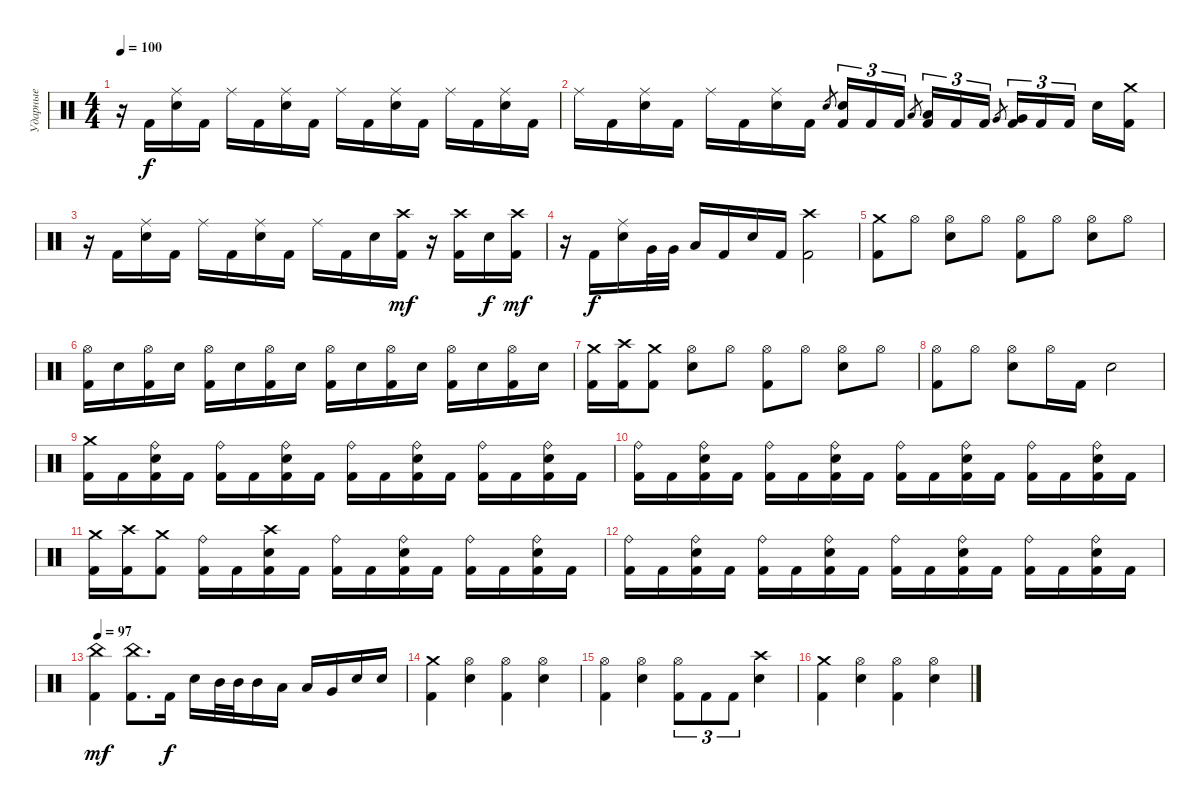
\track ("Ударные" "Ударные") {instrument percussion}
\staff {score}
\articulation defaults
\ts (4 4)
\tempo 100
\clef neutral
\ks c
r.16{dy f} "Kick (hit) 2".16 ("Ride (middle)" "Snare (hit) 2").16 "Kick (hit) 2".16 "Ride (middle)".16 "Kick (hit) 2".16 ("Ride (middle)" "Snare (hit) 2").16 "Kick (hit) 2".16 "Ride (middle)".16 "Kick (hit) 2".16 ("Ride (middle)" "Snare (hit) 2").16 "Kick (hit) 2".16 "Ride (middle)".16 "Kick (hit) 2".16 ("Ride (middle)" "Snare (hit) 2").16 "Kick (hit) 2".16 |
"Ride (middle)".16 "Kick (hit) 2".16 ("Ride (middle)" "Snare (hit) 2").16 "Kick (hit) 2".16 "Ride (middle)".16 "Kick (hit) 2".16 ("Ride (middle)" "Snare (hit) 2").16 "Kick (hit) 2".16 "Snare (hit) 2".8{gr} ("Kick (hit) 2" "Snare (hit) 2").16{tu (3 2)} "Kick (hit) 2".16{tu (3 2)} "Kick (hit) 2".16{tu (3 2)} "Low Tom (hit)".8{gr beam splitsecondary} ("Low Tom (hit)" "Kick (hit) 2").16{tu (3 2)} "Kick (hit) 2".16{tu (3 2)} "Kick (hit) 2".16{tu (3 2)} "Very Low Tom (hit)".8{gr} ("Very Low Tom (hit)" "Kick (hit) 2").16{tu (3 2)} "Kick (hit) 2".16{tu (3 2)} "Kick (hit) 2".16{tu (3 2) beam splitsecondary} "Snare (hit) 2".16 ("Crash medium (hit)" "Kick (hit) 2").16 |
r.16 "Kick (hit) 2".16 ("Ride (middle)" "Snare (hit) 2").16 "Kick (hit) 2".16 "Ride (middle)".16 "Kick (hit) 2".16 ("Ride (middle)" "Snare (hit) 2").16 "Kick (hit) 2".16 "Ride (middle)".16 "Kick (hit) 2".16 "Snare (hit) 2".16 ("Crash high (hit)" "Kick (hit) 2").16{dy mf} r.16 ("Crash high (hit)" "Kick (hit) 2").16 "Snare (hit) 2".16{dy f} ("Crash high (hit)" "Kick (hit) 2").16{dy mf} |
r.16 "Kick (hit) 2".16{dy f} ("Ride (middle)" "Snare (hit) 2").16 "Very Low Tom (hit)".32 "Very Low Tom (hit)".32 "Low Floor Tom (hit)".16 "Kick (hit) 2".16 "Snare (hit) 2".16 "Kick (hit) 2".16 ("Crash high (hit)" "Kick (hit) 2").2 |
("Crash medium (hit)" "Kick (hit) 2").8 "Hi-Hat (open)".8 ("Hi-Hat (open)" "Snare (hit) 2").8 "Hi-Hat (open)".8 ("Hi-Hat (open)" "Kick (hit) 2").8 "Hi-Hat (open)".8 ("Hi-Hat (open)" "Snare (hit) 2").8 "Hi-Hat (open)".8 |
("Hi-Hat (open)" "Kick (hit) 2").16 "Snare (hit) 2".16 ("Hi-Hat (open)" "Kick (hit) 2").16 "Snare (hit) 2".16 ("Hi-Hat (open)" "Kick (hit) 2").16 "Snare (hit) 2".16 ("Hi-Hat (open)" "Kick (hit) 2").16 "Snare (hit) 2".16 ("Hi-Hat (open)" "Kick (hit) 2").16 "Snare (hit) 2".16 ("Hi-Hat (open)" "Kick (hit) 2").16 "Snare (hit) 2".16 ("Hi-Hat (open)" "Kick (hit) 2").16 "Snare (hit) 2".16 ("Hi-Hat (open)" "Kick (hit) 2").16 "Snare (hit) 2".16 |
("Crash medium (hit)" "Kick (hit) 2").16 ("Crash high (hit)" "Kick (hit) 2").16 ("Crash medium (hit)" "Kick (hit) 2").8 ("Hi-Hat (open)" "Snare (hit) 2").8 "Hi-Hat (open)".8 ("Hi-Hat (open)" "Kick (hit) 2").8 "Hi-Hat (open)".8 ("Hi-Hat (open)" "Snare (hit) 2").8 "Hi-Hat (open)".8 |
("Hi-Hat (open)" "Kick (hit) 2").8 "Hi-Hat (open)".8 ("Hi-Hat (open)" "Snare (hit) 2").8 "Hi-Hat (open)".16 "Kick (hit) 2".16 "Snare (hit) 2".2 |
("Crash medium (hit)" "Kick (hit) 2").16 "Kick (hit) 2".16 ("Ride (bell)" "Kick (hit) 2" "Snare (hit) 2").16 "Kick (hit) 2".16 ("Ride (bell)" "Kick (hit) 2").16 "Kick (hit) 2".16 ("Ride (bell)" "Kick (hit) 2" "Snare (hit) 2").16 "Kick (hit) 2".16 ("Ride (bell)" "Kick (hit) 2").16 "Kick (hit) 2".16 ("Ride (bell)" "Kick (hit) 2" "Snare (hit) 2").16 "Kick (hit) 2".16 ("Ride (bell)" "Kick (hit) 2").16 "Kick (hit) 2".16 ("Ride (bell)" "Kick (hit) 2" "Snare (hit) 2").16 "Kick (hit) 2".16 |
("Ride (bell)" "Kick (hit) 2").16 "Kick (hit) 2".16 ("Ride (bell)" "Kick (hit) 2" "Snare (hit) 2").16 "Kick (hit) 2".16 ("Ride (bell)" "Kick (hit) 2").16 "Kick (hit) 2".16 ("Ride (bell)" "Kick (hit) 2" "Snare (hit) 2").16 "Kick (hit) 2".16 ("Ride (bell)" "Kick (hit) 2").16 "Kick (hit) 2".16 ("Ride (bell)" "Kick (hit) 2" "Snare (hit) 2").16 "Kick (hit) 2".16 ("Ride (bell)" "Kick (hit) 2").16 "Kick (hit) 2".16 ("Ride (bell)" "Kick (hit) 2" "Snare (hit) 2").16 "Kick (hit) 2".16 |
("Crash medium (hit)" "Kick (hit) 2").16 ("Crash high (hit)" "Kick (hit) 2").16 ("Crash medium (hit)" "Kick (hit) 2").8 ("Ride (bell)" "Kick (hit) 2").16 "Kick (hit) 2".16 ("Crash high (hit)" "Kick (hit) 2" "Snare (hit) 2").16 "Kick (hit) 2".16 ("Ride (bell)" "Kick (hit) 2").16 "Kick (hit) 2".16 ("Ride (bell)" "Kick (hit) 2" "Snare (hit) 2").16 "Kick (hit) 2".16 ("Ride (bell)" "Kick (hit) 2").16 "Kick (hit) 2".16 ("Ride (bell)" "Kick (hit) 2" "Snare (hit) 2").16 "Kick (hit) 2".16 |
("Ride (bell)" "Kick (hit) 2").16 "Kick (hit) 2".16 ("Ride (bell)" "Kick (hit) 2" "Snare (hit) 2").16 "Kick (hit) 2".16 ("Ride (bell)" "Kick (hit) 2").16 "Kick (hit) 2".16 ("Ride (bell)" "Kick (hit) 2" "Snare (hit) 2").16 "Kick (hit) 2".16 ("Ride (bell)" "Kick (hit) 2").16 "Kick (hit) 2".16 ("Ride (bell)" "Kick (hit) 2" "Snare (hit) 2").16 "Kick (hit) 2".16 ("Ride (bell)" "Kick (hit) 2").16 "Kick (hit) 2".16 ("Ride (bell)" "Kick (hit) 2" "Snare (hit) 2").16 "Kick (hit) 2".16 |
\tempo 97
("China (hit)" "Kick (hit) 2").4{dy mf} ("China (hit)" "Kick (hit) 2").8{d} "Kick (hit) 2".16{dy f} "Snare (hit) 2".16 "Mid Tom (hit)".32 "Mid Tom (hit)".32 "Mid Tom (hit)".16 "Low Tom (hit)".16 "Low Tom (hit)".16 "Very Low Tom (hit)".16 "Snare (hit) 2".16 "Snare (hit) 2".16 |
("Crash medium (hit)" "Kick (hit) 2").4 ("Hi-Hat (open)" "Snare (hit) 2").4 ("Hi-Hat (open)" "Kick (hit) 2").4 ("Hi-Hat (open)" "Snare (hit) 2").4 |
("Hi-Hat (open)" "Kick (hit) 2").4 ("Hi-Hat (open)" "Snare (hit) 2").4 ("Hi-Hat (open)" "Kick (hit) 2").8{tu (3 2)} "Kick (hit) 2".8{tu (3 2)} "Kick (hit) 2".8{tu (3 2)} ("Crash high (hit)" "Snare (hit) 2").4 |
("Crash medium (hit)" "Kick (hit) 2").4 ("Hi-Hat (open)" "Snare (hit) 2").4 ("Hi-Hat (open)" "Kick (hit) 2").4 ("Hi-Hat (open)" "Snare (hit) 2").4
